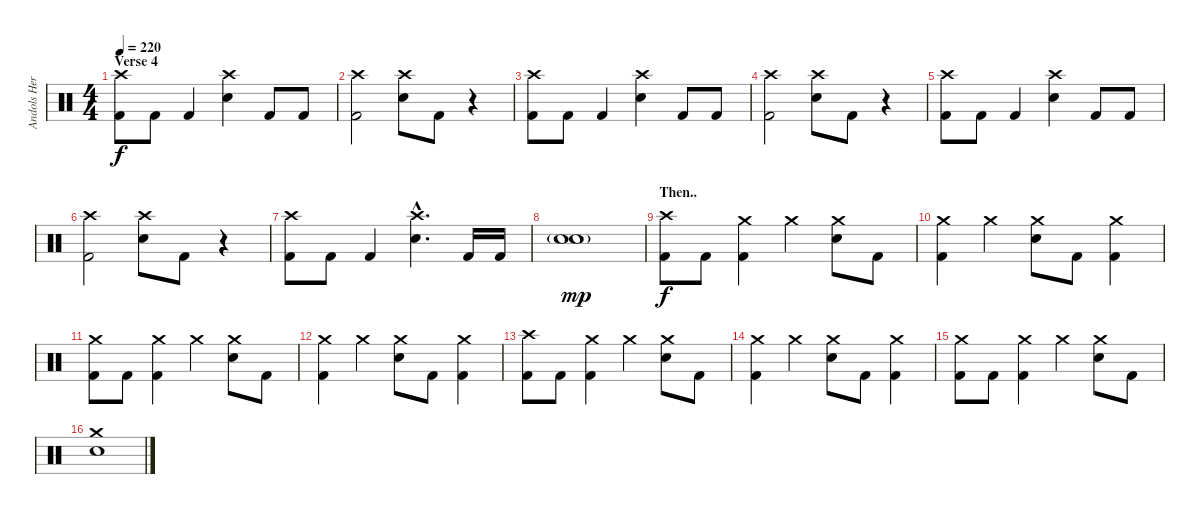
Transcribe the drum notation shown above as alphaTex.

\track ("Andols Herrick - Drums" "Andols Her") {instrument percussion}
\staff {score}
\articulation defaults
\ts (4 4)
\section ("" "Verse 4")
\tempo 220
\clef neutral
\ks c
("Crash high (hit)" "Kick (hit) 2").8{dy f} "Kick (hit) 2".8 "Kick (hit) 2".4 ("Crash high (hit)" "Snare (hit) 2").4 "Kick (hit) 2".8 "Kick (hit) 2".8 |
("Crash high (hit)" "Kick (hit) 2").2 ("Crash high (hit)" "Snare (hit) 2").8 "Kick (hit) 2".8 r.4 |
("Crash high (hit)" "Kick (hit) 2").8 "Kick (hit) 2".8 "Kick (hit) 2".4 ("Crash high (hit)" "Snare (hit) 2").4 "Kick (hit) 2".8 "Kick (hit) 2".8 |
("Crash high (hit)" "Kick (hit) 2").2 ("Crash high (hit)" "Snare (hit) 2").8 "Kick (hit) 2".8 r.4 |
("Crash high (hit)" "Kick (hit) 2").8 "Kick (hit) 2".8 "Kick (hit) 2".4 ("Crash high (hit)" "Snare (hit) 2").4 "Kick (hit) 2".8 "Kick (hit) 2".8 |
("Crash high (hit)" "Kick (hit) 2").2 ("Crash high (hit)" "Snare (hit) 2").8 "Kick (hit) 2".8 r.4 |
("Crash high (hit)" "Kick (hit) 2").8 "Kick (hit) 2".8 "Kick (hit) 2".4 ("Crash high (hit)"{hac} "Snare (hit) 2"{hac}).4{d} "Kick (hit) 2".16 "Kick (hit) 2".16 |
("Snare (hit) 2"{g} "Snare (hit) 2").1{dy mp} |
\section ("" "Then..")
("Crash high (hit)" "Kick (hit) 2").8{dy f} "Kick (hit) 2".8 ("Crash medium (hit)" "Kick (hit) 2").4 "Crash medium (hit)".4 ("Crash medium (hit)" "Snare (hit) 2").8 "Kick (hit) 2".8 |
("Crash medium (hit)" "Kick (hit) 2").4 "Crash medium (hit)".4 ("Crash medium (hit)" "Snare (hit) 2").8 "Kick (hit) 2".8 ("Crash medium (hit)" "Kick (hit) 2").4 |
("Crash medium (hit)" "Kick (hit) 2").8 "Kick (hit) 2".8 ("Crash medium (hit)" "Kick (hit) 2").4 "Crash medium (hit)".4 ("Crash medium (hit)" "Snare (hit) 2").8 "Kick (hit) 2".8 |
("Crash medium (hit)" "Kick (hit) 2").4 "Crash medium (hit)".4 ("Crash medium (hit)" "Snare (hit) 2").8 "Kick (hit) 2".8 ("Crash medium (hit)" "Kick (hit) 2").4 |
("Crash high (hit)" "Kick (hit) 2").8 "Kick (hit) 2".8 ("Crash medium (hit)" "Kick (hit) 2").4 "Crash medium (hit)".4 ("Crash medium (hit)" "Snare (hit) 2").8 "Kick (hit) 2".8 |
("Crash medium (hit)" "Kick (hit) 2").4 "Crash medium (hit)".4 ("Crash medium (hit)" "Snare (hit) 2").8 "Kick (hit) 2".8 ("Crash medium (hit)" "Kick (hit) 2").4 |
("Crash medium (hit)" "Kick (hit) 2").8 "Kick (hit) 2".8 ("Crash medium (hit)" "Kick (hit) 2").4 "Crash medium (hit)".4 ("Crash medium (hit)" "Snare (hit) 2").8 "Kick (hit) 2".8 |
("Crash medium (hit)" "Snare (hit) 2").1
